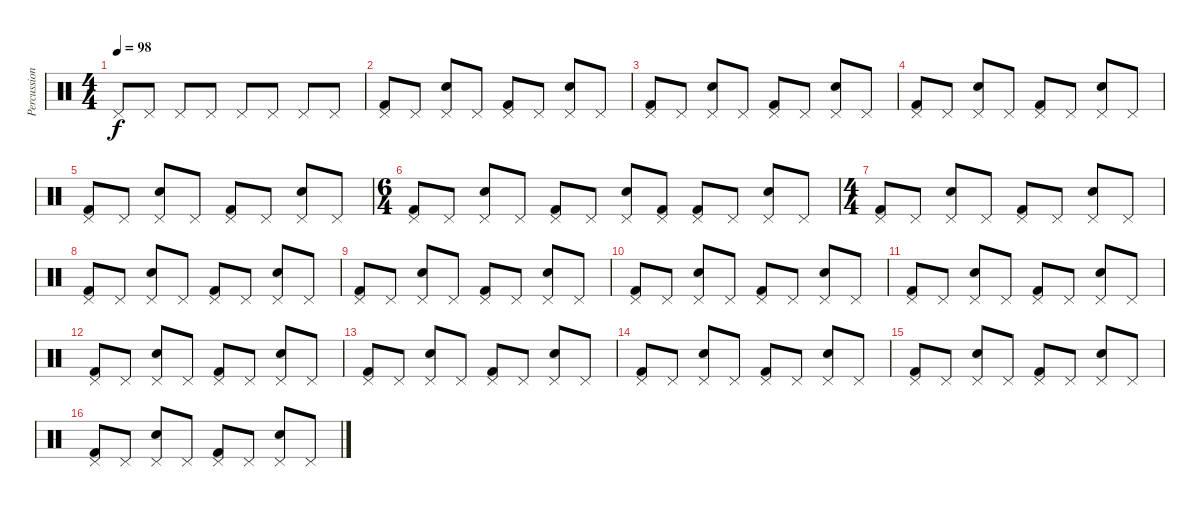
\track ("Percussions" "Percussion") {instrument percussion}
\staff {score}
\articulation defaults
\ts (4 4)
\tempo 98
\clef neutral
\ks c "Pedal Hi-Hat (hit)".8{dy f} "Pedal Hi-Hat (hit)".8 "Pedal Hi-Hat (hit)".8 "Pedal Hi-Hat (hit)".8 "Pedal Hi-Hat (hit)".8 "Pedal Hi-Hat (hit)".8 "Pedal Hi-Hat (hit)".8 "Pedal Hi-Hat (hit)".8
|
("Pedal Hi-Hat (hit)" "Kick (hit) 2").8 "Pedal Hi-Hat (hit)".8 ("Pedal Hi-Hat (hit)" "Electric Snare (hit)").8 "Pedal Hi-Hat (hit)".8 ("Pedal Hi-Hat (hit)" "Kick (hit) 2").8 "Pedal Hi-Hat (hit)".8 ("Pedal Hi-Hat (hit)" "Electric Snare (hit)").8 "Pedal Hi-Hat (hit)".8 |
("Pedal Hi-Hat (hit)" "Kick (hit) 2").8 "Pedal Hi-Hat (hit)".8 ("Pedal Hi-Hat (hit)" "Electric Snare (hit)").8 "Pedal Hi-Hat (hit)".8 ("Pedal Hi-Hat (hit)" "Kick (hit) 2").8 "Pedal Hi-Hat (hit)".8 ("Pedal Hi-Hat (hit)" "Electric Snare (hit)").8 "Pedal Hi-Hat (hit)".8 |
("Pedal Hi-Hat (hit)" "Kick (hit) 2").8 "Pedal Hi-Hat (hit)".8 ("Pedal Hi-Hat (hit)" "Electric Snare (hit)").8 "Pedal Hi-Hat (hit)".8 ("Pedal Hi-Hat (hit)" "Kick (hit) 2").8 "Pedal Hi-Hat (hit)".8 ("Pedal Hi-Hat (hit)" "Electric Snare (hit)").8 "Pedal Hi-Hat (hit)".8 |
("Pedal Hi-Hat (hit)" "Kick (hit) 2").8 "Pedal Hi-Hat (hit)".8 ("Pedal Hi-Hat (hit)" "Electric Snare (hit)").8 "Pedal Hi-Hat (hit)".8 ("Pedal Hi-Hat (hit)" "Kick (hit) 2").8 "Pedal Hi-Hat (hit)".8 ("Pedal Hi-Hat (hit)" "Electric Snare (hit)").8 "Pedal Hi-Hat (hit)".8 |
\ts (6 4)
("Pedal Hi-Hat (hit)" "Kick (hit) 2").8 "Pedal Hi-Hat (hit)".8 ("Pedal Hi-Hat (hit)" "Electric Snare (hit)").8 "Pedal Hi-Hat (hit)".8 ("Pedal Hi-Hat (hit)" "Kick (hit) 2").8 "Pedal Hi-Hat (hit)".8 ("Pedal Hi-Hat (hit)" "Electric Snare (hit)").8 ("Pedal Hi-Hat (hit)" "Kick (hit) 2").8 ("Pedal Hi-Hat (hit)" "Kick (hit) 2").8 "Pedal Hi-Hat (hit)".8 ("Pedal Hi-Hat (hit)" "Electric Snare (hit)").8 "Pedal Hi-Hat (hit)".8 |
\ts (4 4)
("Pedal Hi-Hat (hit)" "Kick (hit) 2").8 "Pedal Hi-Hat (hit)".8 ("Pedal Hi-Hat (hit)" "Electric Snare (hit)").8 "Pedal Hi-Hat (hit)".8 ("Pedal Hi-Hat (hit)" "Kick (hit) 2").8 "Pedal Hi-Hat (hit)".8 ("Pedal Hi-Hat (hit)" "Electric Snare (hit)").8 "Pedal Hi-Hat (hit)".8 |
("Pedal Hi-Hat (hit)" "Kick (hit) 2").8 "Pedal Hi-Hat (hit)".8 ("Pedal Hi-Hat (hit)" "Electric Snare (hit)").8 "Pedal Hi-Hat (hit)".8 ("Pedal Hi-Hat (hit)" "Kick (hit) 2").8 "Pedal Hi-Hat (hit)".8 ("Pedal Hi-Hat (hit)" "Electric Snare (hit)").8 "Pedal Hi-Hat (hit)".8 |
("Pedal Hi-Hat (hit)" "Kick (hit) 2").8 "Pedal Hi-Hat (hit)".8 ("Pedal Hi-Hat (hit)" "Electric Snare (hit)").8 "Pedal Hi-Hat (hit)".8 ("Pedal Hi-Hat (hit)" "Kick (hit) 2").8 "Pedal Hi-Hat (hit)".8 ("Pedal Hi-Hat (hit)" "Electric Snare (hit)").8 "Pedal Hi-Hat (hit)".8 |
("Pedal Hi-Hat (hit)" "Kick (hit) 2").8 "Pedal Hi-Hat (hit)".8 ("Pedal Hi-Hat (hit)" "Electric Snare (hit)").8 "Pedal Hi-Hat (hit)".8 ("Pedal Hi-Hat (hit)" "Kick (hit) 2").8 "Pedal Hi-Hat (hit)".8 ("Pedal Hi-Hat (hit)" "Electric Snare (hit)").8 "Pedal Hi-Hat (hit)".8 |
("Pedal Hi-Hat (hit)" "Kick (hit) 2").8 "Pedal Hi-Hat (hit)".8 ("Pedal Hi-Hat (hit)" "Electric Snare (hit)").8 "Pedal Hi-Hat (hit)".8 ("Pedal Hi-Hat (hit)" "Kick (hit) 2").8 "Pedal Hi-Hat (hit)".8 ("Pedal Hi-Hat (hit)" "Electric Snare (hit)").8 "Pedal Hi-Hat (hit)".8 |
("Pedal Hi-Hat (hit)" "Kick (hit) 2").8 "Pedal Hi-Hat (hit)".8 ("Pedal Hi-Hat (hit)" "Electric Snare (hit)").8 "Pedal Hi-Hat (hit)".8 ("Pedal Hi-Hat (hit)" "Kick (hit) 2").8 "Pedal Hi-Hat (hit)".8 ("Pedal Hi-Hat (hit)" "Electric Snare (hit)").8 "Pedal Hi-Hat (hit)".8 |
("Pedal Hi-Hat (hit)" "Kick (hit) 2").8 "Pedal Hi-Hat (hit)".8 ("Pedal Hi-Hat (hit)" "Electric Snare (hit)").8 "Pedal Hi-Hat (hit)".8 ("Pedal Hi-Hat (hit)" "Kick (hit) 2").8 "Pedal Hi-Hat (hit)".8 ("Pedal Hi-Hat (hit)" "Electric Snare (hit)").8 "Pedal Hi-Hat (hit)".8 |
("Pedal Hi-Hat (hit)" "Kick (hit) 2").8 "Pedal Hi-Hat (hit)".8 ("Pedal Hi-Hat (hit)" "Electric Snare (hit)").8 "Pedal Hi-Hat (hit)".8 ("Pedal Hi-Hat (hit)" "Kick (hit) 2").8 "Pedal Hi-Hat (hit)".8 ("Pedal Hi-Hat (hit)" "Electric Snare (hit)").8 "Pedal Hi-Hat (hit)".8 |
("Pedal Hi-Hat (hit)" "Kick (hit) 2").8 "Pedal Hi-Hat (hit)".8 ("Pedal Hi-Hat (hit)" "Electric Snare (hit)").8 "Pedal Hi-Hat (hit)".8 ("Pedal Hi-Hat (hit)" "Kick (hit) 2").8 "Pedal Hi-Hat (hit)".8 ("Pedal Hi-Hat (hit)" "Electric Snare (hit)").8 "Pedal Hi-Hat (hit)".8 |
("Pedal Hi-Hat (hit)" "Kick (hit) 2").8 "Pedal Hi-Hat (hit)".8 ("Pedal Hi-Hat (hit)" "Electric Snare (hit)").8 "Pedal Hi-Hat (hit)".8 ("Pedal Hi-Hat (hit)" "Kick (hit) 2").8 "Pedal Hi-Hat (hit)".8 ("Pedal Hi-Hat (hit)" "Electric Snare (hit)").8 "Pedal Hi-Hat (hit)".8
